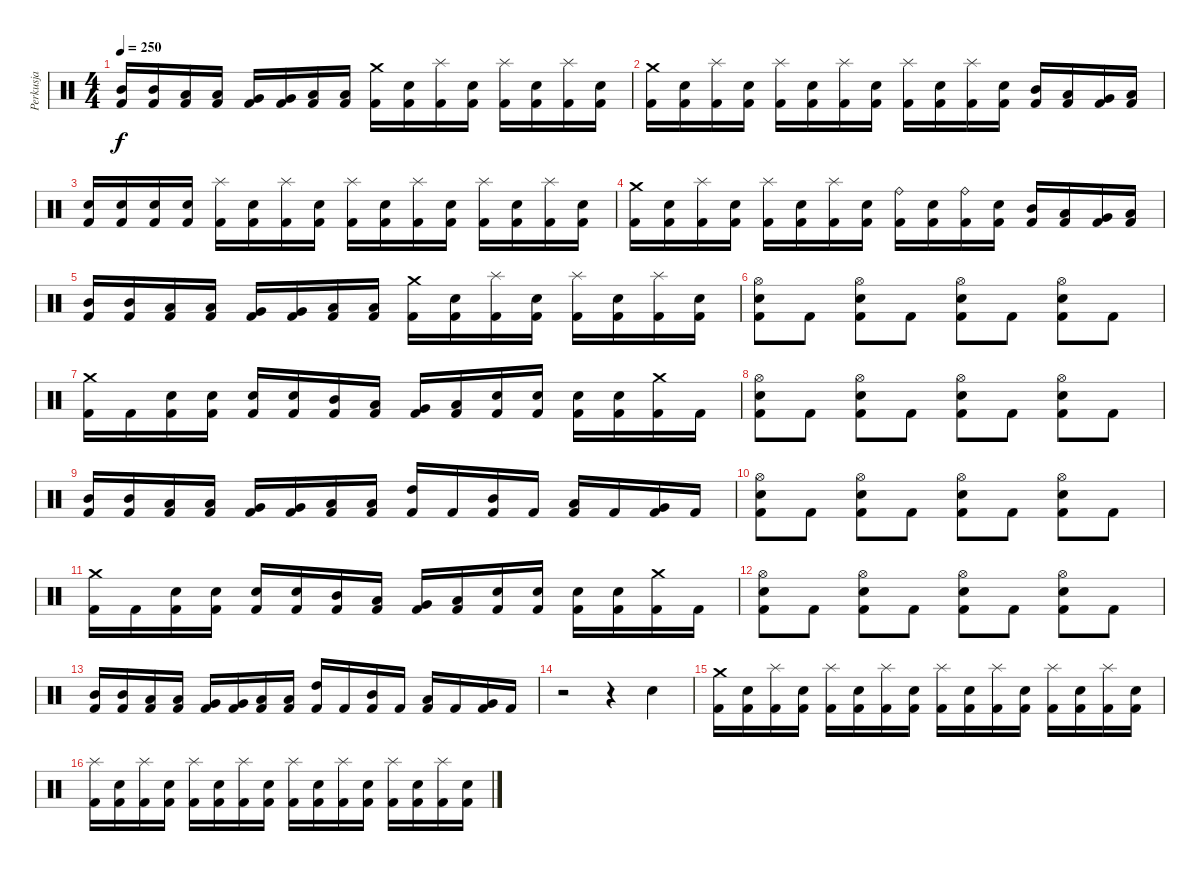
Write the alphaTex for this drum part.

\track ("Perkusja" "Perkusja") {instrument percussion}
\staff {score}
\articulation defaults
\ts (4 4)
\tempo 250
\clef neutral
\ks c
("Mid Tom (hit)" "Kick (hit) 2").16{dy f} ("Mid Tom (hit)" "Kick (hit) 2").16 ("Low Tom (hit)" "Kick (hit) 2").16 ("Low Tom (hit)" "Kick (hit) 2").16 ("Very Low Tom (hit)" "Kick (hit) 2").16 ("Very Low Tom (hit)" "Kick (hit) 2").16 ("Low Floor Tom (hit)" "Kick (hit) 2").16 ("Low Floor Tom (hit)" "Kick (hit) 2").16 ("Crash medium (hit)" "Kick (hit) 2").16 ("Snare (hit) 2" "Kick (hit) 2").16 ("Splash (hit)" "Kick (hit) 2").16 ("Snare (hit) 2" "Kick (hit) 2").16 ("Splash (hit)" "Kick (hit) 2").16 ("Snare (hit) 2" "Kick (hit) 2").16 ("Splash (hit)" "Kick (hit) 2").16 ("Snare (hit) 2" "Kick (hit) 2").16 |
("Crash medium (hit)" "Kick (hit) 2").16 ("Snare (hit) 2" "Kick (hit) 2").16 ("Splash (hit)" "Kick (hit) 2").16 ("Snare (hit) 2" "Kick (hit) 2").16 ("Splash (hit)" "Kick (hit) 2").16 ("Snare (hit) 2" "Kick (hit) 2").16 ("Splash (hit)" "Kick (hit) 2").16 ("Snare (hit) 2" "Kick (hit) 2").16 ("Splash (hit)" "Kick (hit) 2").16 ("Snare (hit) 2" "Kick (hit) 2").16 ("Splash (hit)" "Kick (hit) 2").16 ("Snare (hit) 2" "Kick (hit) 2").16 ("Mid Tom (hit)" "Kick (hit) 2").16 ("Low Tom (hit)" "Kick (hit) 2").16 ("Very Low Tom (hit)" "Kick (hit) 2").16 ("Low Floor Tom (hit)" "Kick (hit) 2").16 |
("Electric Snare (hit)" "Kick (hit) 2").16 ("Electric Snare (hit)" "Kick (hit) 2").16 ("Electric Snare (hit)" "Kick (hit) 2").16 ("Electric Snare (hit)" "Kick (hit) 2").16 ("Splash (hit)" "Kick (hit) 2").16 ("Snare (hit) 2" "Kick (hit) 2").16 ("Splash (hit)" "Kick (hit) 2").16 ("Snare (hit) 2" "Kick (hit) 2").16 ("Splash (hit)" "Kick (hit) 2").16 ("Snare (hit) 2" "Kick (hit) 2").16 ("Splash (hit)" "Kick (hit) 2").16 ("Snare (hit) 2" "Kick (hit) 2").16 ("Splash (hit)" "Kick (hit) 2").16 ("Snare (hit) 2" "Kick (hit) 2").16 ("Splash (hit)" "Kick (hit) 2").16 ("Snare (hit) 2" "Kick (hit) 2").16 |
("Crash medium (hit)" "Kick (hit) 2").16 ("Snare (hit) 2" "Kick (hit) 2").16 ("Splash (hit)" "Kick (hit) 2").16 ("Snare (hit) 2" "Kick (hit) 2").16 ("Splash (hit)" "Kick (hit) 2").16 ("Snare (hit) 2" "Kick (hit) 2").16 ("Splash (hit)" "Kick (hit) 2").16 ("Snare (hit) 2" "Kick (hit) 2").16 ("Ride (bell)" "Kick (hit) 2").16 ("Snare (hit) 2" "Kick (hit) 2").16 ("Ride (bell)" "Kick (hit) 2").16 ("Snare (hit) 2" "Kick (hit) 2").16 ("Mid Tom (hit)" "Kick (hit) 2").16 ("Low Tom (hit)" "Kick (hit) 2").16 ("Very Low Tom (hit)" "Kick (hit) 2").16 ("Low Floor Tom (hit)" "Kick (hit) 2").16 |
("Mid Tom (hit)" "Kick (hit) 2").16 ("Mid Tom (hit)" "Kick (hit) 2").16 ("Low Tom (hit)" "Kick (hit) 2").16 ("Low Tom (hit)" "Kick (hit) 2").16 ("Very Low Tom (hit)" "Kick (hit) 2").16 ("Very Low Tom (hit)" "Kick (hit) 2").16 ("Low Floor Tom (hit)" "Kick (hit) 2").16 ("Low Floor Tom (hit)" "Kick (hit) 2").16 ("Crash medium (hit)" "Kick (hit) 2").16 ("Snare (hit) 2" "Kick (hit) 2").16 ("Splash (hit)" "Kick (hit) 2").16 ("Snare (hit) 2" "Kick (hit) 2").16 ("Splash (hit)" "Kick (hit) 2").16 ("Snare (hit) 2" "Kick (hit) 2").16 ("Splash (hit)" "Kick (hit) 2").16 ("Snare (hit) 2" "Kick (hit) 2").16 |
("Hi-Hat (open)" "Snare (hit) 2" "Kick (hit) 2").8 "Kick (hit) 2".8 ("Hi-Hat (open)" "Snare (hit) 2" "Kick (hit) 2").8 "Kick (hit) 2".8 ("Hi-Hat (open)" "Snare (hit) 2" "Kick (hit) 2").8 "Kick (hit) 2".8 ("Hi-Hat (open)" "Snare (hit) 2" "Kick (hit) 2").8 "Kick (hit) 2".8 |
("Crash medium (hit)" "Kick (hit) 2").16 "Kick (hit) 2".16 ("Electric Snare (hit)" "Kick (hit) 2").16 ("Electric Snare (hit)" "Kick (hit) 2").16 ("Electric Snare (hit)" "Kick (hit) 2").16 ("Electric Snare (hit)" "Kick (hit) 2").16 ("Mid Tom (hit)" "Kick (hit) 2").16 ("Low Tom (hit)" "Kick (hit) 2").16 ("Very Low Tom (hit)" "Kick (hit) 2").16 ("Low Floor Tom (hit)" "Kick (hit) 2").16 ("Snare (hit) 2" "Kick (hit) 2").16 ("Snare (hit) 2" "Kick (hit) 2").16 ("Snare (hit) 2" "Kick (hit) 2").16 ("Snare (hit) 2" "Kick (hit) 2").16 ("Crash medium (hit)" "Kick (hit) 2").16 "Kick (hit) 2".16 |
("Hi-Hat (open)" "Snare (hit) 2" "Kick (hit) 2").8 "Kick (hit) 2".8 ("Hi-Hat (open)" "Snare (hit) 2" "Kick (hit) 2").8 "Kick (hit) 2".8 ("Hi-Hat (open)" "Snare (hit) 2" "Kick (hit) 2").8 "Kick (hit) 2".8 ("Hi-Hat (open)" "Snare (hit) 2" "Kick (hit) 2").8 "Kick (hit) 2".8 |
("Mid Tom (hit)" "Kick (hit) 2").16 ("Mid Tom (hit)" "Kick (hit) 2").16 ("Low Tom (hit)" "Kick (hit) 2").16 ("Low Tom (hit)" "Kick (hit) 2").16 ("Very Low Tom (hit)" "Kick (hit) 2").16 ("Very Low Tom (hit)" "Kick (hit) 2").16 ("Low Floor Tom (hit)" "Kick (hit) 2").16 ("Low Floor Tom (hit)" "Kick (hit) 2").16 ("High Tom (hit)" "Kick (hit) 2").16 "Kick (hit) 2".16 ("Mid Tom (hit)" "Kick (hit) 2").16 "Kick (hit) 2".16 ("Low Tom (hit)" "Kick (hit) 2").16 "Kick (hit) 2".16 ("Very Low Tom (hit)" "Kick (hit) 2").16 "Kick (hit) 2".16 |
("Hi-Hat (open)" "Snare (hit) 2" "Kick (hit) 2").8 "Kick (hit) 2".8 ("Hi-Hat (open)" "Snare (hit) 2" "Kick (hit) 2").8 "Kick (hit) 2".8 ("Hi-Hat (open)" "Snare (hit) 2" "Kick (hit) 2").8 "Kick (hit) 2".8 ("Hi-Hat (open)" "Snare (hit) 2" "Kick (hit) 2").8 "Kick (hit) 2".8 |
("Crash medium (hit)" "Kick (hit) 2").16 "Kick (hit) 2".16 ("Electric Snare (hit)" "Kick (hit) 2").16 ("Electric Snare (hit)" "Kick (hit) 2").16 ("Electric Snare (hit)" "Kick (hit) 2").16 ("Electric Snare (hit)" "Kick (hit) 2").16 ("Mid Tom (hit)" "Kick (hit) 2").16 ("Low Tom (hit)" "Kick (hit) 2").16 ("Very Low Tom (hit)" "Kick (hit) 2").16 ("Low Floor Tom (hit)" "Kick (hit) 2").16 ("Snare (hit) 2" "Kick (hit) 2").16 ("Snare (hit) 2" "Kick (hit) 2").16 ("Snare (hit) 2" "Kick (hit) 2").16 ("Snare (hit) 2" "Kick (hit) 2").16 ("Crash medium (hit)" "Kick (hit) 2").16 "Kick (hit) 2".16 |
("Hi-Hat (open)" "Snare (hit) 2" "Kick (hit) 2").8 "Kick (hit) 2".8 ("Hi-Hat (open)" "Snare (hit) 2" "Kick (hit) 2").8 "Kick (hit) 2".8 ("Hi-Hat (open)" "Snare (hit) 2" "Kick (hit) 2").8 "Kick (hit) 2".8 ("Hi-Hat (open)" "Snare (hit) 2" "Kick (hit) 2").8 "Kick (hit) 2".8 |
("Mid Tom (hit)" "Kick (hit) 2").16 ("Mid Tom (hit)" "Kick (hit) 2").16 ("Low Tom (hit)" "Kick (hit) 2").16 ("Low Tom (hit)" "Kick (hit) 2").16 ("Very Low Tom (hit)" "Kick (hit) 2").16 ("Very Low Tom (hit)" "Kick (hit) 2").16 ("Low Floor Tom (hit)" "Kick (hit) 2").16 ("Low Floor Tom (hit)" "Kick (hit) 2").16 ("High Tom (hit)" "Kick (hit) 2").16 "Kick (hit) 2".16 ("Mid Tom (hit)" "Kick (hit) 2").16 "Kick (hit) 2".16 ("Low Tom (hit)" "Kick (hit) 2").16 "Kick (hit) 2".16 ("Very Low Tom (hit)" "Kick (hit) 2").16 "Kick (hit) 2".16 |
r.2 r.4 "Electric Snare (hit)".4 |
("Crash medium (hit)" "Kick (hit) 2").16 ("Snare (hit) 2" "Kick (hit) 2").16 ("Splash (hit)" "Kick (hit) 2").16 ("Snare (hit) 2" "Kick (hit) 2").16 ("Splash (hit)" "Kick (hit) 2").16 ("Snare (hit) 2" "Kick (hit) 2").16 ("Splash (hit)" "Kick (hit) 2").16 ("Snare (hit) 2" "Kick (hit) 2").16 ("Splash (hit)" "Kick (hit) 2").16 ("Snare (hit) 2" "Kick (hit) 2").16 ("Splash (hit)" "Kick (hit) 2").16 ("Snare (hit) 2" "Kick (hit) 2").16 ("Splash (hit)" "Kick (hit) 2").16 ("Snare (hit) 2" "Kick (hit) 2").16 ("Splash (hit)" "Kick (hit) 2").16 ("Snare (hit) 2" "Kick (hit) 2").16 |
("Splash (hit)" "Kick (hit) 2").16 ("Snare (hit) 2" "Kick (hit) 2").16 ("Splash (hit)" "Kick (hit) 2").16 ("Snare (hit) 2" "Kick (hit) 2").16 ("Splash (hit)" "Kick (hit) 2").16 ("Snare (hit) 2" "Kick (hit) 2").16 ("Splash (hit)" "Kick (hit) 2").16 ("Snare (hit) 2" "Kick (hit) 2").16 ("Splash (hit)" "Kick (hit) 2").16 ("Snare (hit) 2" "Kick (hit) 2").16 ("Splash (hit)" "Kick (hit) 2").16 ("Snare (hit) 2" "Kick (hit) 2").16 ("Splash (hit)" "Kick (hit) 2").16 ("Snare (hit) 2" "Kick (hit) 2").16 ("Splash (hit)" "Kick (hit) 2").16 ("Snare (hit) 2" "Kick (hit) 2").16
